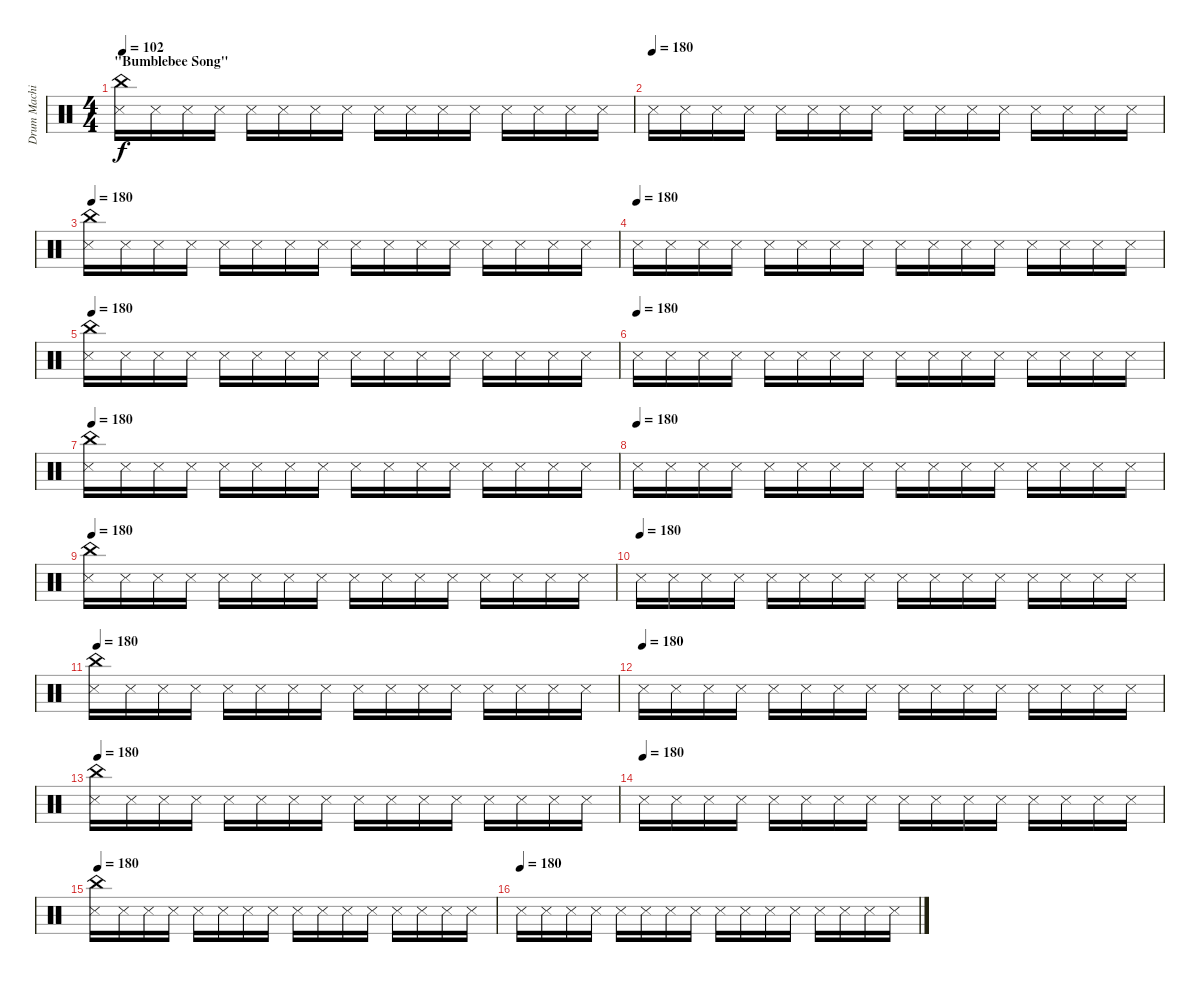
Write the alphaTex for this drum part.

\track ("Drum Machine" "Drum Machi") {instrument percussion}
\staff {score}
\articulation defaults
\ts (4 4)
\section ("" "\"Bumblebee Song\"")
\tempo 102
\tempo 180
\tempo 102
\clef neutral
\ks c
("China (hit)" "Snare (side stick) 3").16{dy f} "Snare (side stick) 3".16 "Snare (side stick) 3".16 "Snare (side stick) 3".16 "Snare (side stick) 3".16 "Snare (side stick) 3".16 "Snare (side stick) 3".16 "Snare (side stick) 3".16 "Snare (side stick) 3".16 "Snare (side stick) 3".16 "Snare (side stick) 3".16 "Snare (side stick) 3".16 "Snare (side stick) 3".16 "Snare (side stick) 3".16 "Snare (side stick) 3".16 "Snare (side stick) 3".16 |
\tempo (180)
"Snare (side stick) 3".16 "Snare (side stick) 3".16 "Snare (side stick) 3".16 "Snare (side stick) 3".16 "Snare (side stick) 3".16 "Snare (side stick) 3".16 "Snare (side stick) 3".16 "Snare (side stick) 3".16 "Snare (side stick) 3".16 "Snare (side stick) 3".16 "Snare (side stick) 3".16 "Snare (side stick) 3".16 "Snare (side stick) 3".16 "Snare (side stick) 3".16 "Snare (side stick) 3".16 "Snare (side stick) 3".16 |
\tempo 180
("China (hit)" "Snare (side stick) 3").16 "Snare (side stick) 3".16 "Snare (side stick) 3".16 "Snare (side stick) 3".16 "Snare (side stick) 3".16 "Snare (side stick) 3".16 "Snare (side stick) 3".16 "Snare (side stick) 3".16 "Snare (side stick) 3".16 "Snare (side stick) 3".16 "Snare (side stick) 3".16 "Snare (side stick) 3".16 "Snare (side stick) 3".16 "Snare (side stick) 3".16 "Snare (side stick) 3".16 "Snare (side stick) 3".16 |
\tempo (180)
"Snare (side stick) 3".16 "Snare (side stick) 3".16 "Snare (side stick) 3".16 "Snare (side stick) 3".16 "Snare (side stick) 3".16 "Snare (side stick) 3".16 "Snare (side stick) 3".16 "Snare (side stick) 3".16 "Snare (side stick) 3".16 "Snare (side stick) 3".16 "Snare (side stick) 3".16 "Snare (side stick) 3".16 "Snare (side stick) 3".16 "Snare (side stick) 3".16 "Snare (side stick) 3".16 "Snare (side stick) 3".16 |
\tempo 180
("China (hit)" "Snare (side stick) 3").16 "Snare (side stick) 3".16 "Snare (side stick) 3".16 "Snare (side stick) 3".16 "Snare (side stick) 3".16 "Snare (side stick) 3".16 "Snare (side stick) 3".16 "Snare (side stick) 3".16 "Snare (side stick) 3".16 "Snare (side stick) 3".16 "Snare (side stick) 3".16 "Snare (side stick) 3".16 "Snare (side stick) 3".16 "Snare (side stick) 3".16 "Snare (side stick) 3".16 "Snare (side stick) 3".16 |
\tempo (180)
"Snare (side stick) 3".16 "Snare (side stick) 3".16 "Snare (side stick) 3".16 "Snare (side stick) 3".16 "Snare (side stick) 3".16 "Snare (side stick) 3".16 "Snare (side stick) 3".16 "Snare (side stick) 3".16 "Snare (side stick) 3".16 "Snare (side stick) 3".16 "Snare (side stick) 3".16 "Snare (side stick) 3".16 "Snare (side stick) 3".16 "Snare (side stick) 3".16 "Snare (side stick) 3".16 "Snare (side stick) 3".16 |
\tempo 180
("China (hit)" "Snare (side stick) 3").16 "Snare (side stick) 3".16 "Snare (side stick) 3".16 "Snare (side stick) 3".16 "Snare (side stick) 3".16 "Snare (side stick) 3".16 "Snare (side stick) 3".16 "Snare (side stick) 3".16 "Snare (side stick) 3".16 "Snare (side stick) 3".16 "Snare (side stick) 3".16 "Snare (side stick) 3".16 "Snare (side stick) 3".16 "Snare (side stick) 3".16 "Snare (side stick) 3".16 "Snare (side stick) 3".16 |
\tempo (180)
"Snare (side stick) 3".16 "Snare (side stick) 3".16 "Snare (side stick) 3".16 "Snare (side stick) 3".16 "Snare (side stick) 3".16 "Snare (side stick) 3".16 "Snare (side stick) 3".16 "Snare (side stick) 3".16 "Snare (side stick) 3".16 "Snare (side stick) 3".16 "Snare (side stick) 3".16 "Snare (side stick) 3".16 "Snare (side stick) 3".16 "Snare (side stick) 3".16 "Snare (side stick) 3".16 "Snare (side stick) 3".16 |
\tempo 180
("China (hit)" "Snare (side stick) 3").16 "Snare (side stick) 3".16 "Snare (side stick) 3".16 "Snare (side stick) 3".16 "Snare (side stick) 3".16 "Snare (side stick) 3".16 "Snare (side stick) 3".16 "Snare (side stick) 3".16 "Snare (side stick) 3".16 "Snare (side stick) 3".16 "Snare (side stick) 3".16 "Snare (side stick) 3".16 "Snare (side stick) 3".16 "Snare (side stick) 3".16 "Snare (side stick) 3".16 "Snare (side stick) 3".16 |
\tempo (180)
"Snare (side stick) 3".16 "Snare (side stick) 3".16 "Snare (side stick) 3".16 "Snare (side stick) 3".16 "Snare (side stick) 3".16 "Snare (side stick) 3".16 "Snare (side stick) 3".16 "Snare (side stick) 3".16 "Snare (side stick) 3".16 "Snare (side stick) 3".16 "Snare (side stick) 3".16 "Snare (side stick) 3".16 "Snare (side stick) 3".16 "Snare (side stick) 3".16 "Snare (side stick) 3".16 "Snare (side stick) 3".16 |
\tempo 180
("China (hit)" "Snare (side stick) 3").16 "Snare (side stick) 3".16 "Snare (side stick) 3".16 "Snare (side stick) 3".16 "Snare (side stick) 3".16 "Snare (side stick) 3".16 "Snare (side stick) 3".16 "Snare (side stick) 3".16 "Snare (side stick) 3".16 "Snare (side stick) 3".16 "Snare (side stick) 3".16 "Snare (side stick) 3".16 "Snare (side stick) 3".16 "Snare (side stick) 3".16 "Snare (side stick) 3".16 "Snare (side stick) 3".16 |
\tempo (180)
"Snare (side stick) 3".16 "Snare (side stick) 3".16 "Snare (side stick) 3".16 "Snare (side stick) 3".16 "Snare (side stick) 3".16 "Snare (side stick) 3".16 "Snare (side stick) 3".16 "Snare (side stick) 3".16 "Snare (side stick) 3".16 "Snare (side stick) 3".16 "Snare (side stick) 3".16 "Snare (side stick) 3".16 "Snare (side stick) 3".16 "Snare (side stick) 3".16 "Snare (side stick) 3".16 "Snare (side stick) 3".16 |
\tempo 180
("China (hit)" "Snare (side stick) 3").16 "Snare (side stick) 3".16 "Snare (side stick) 3".16 "Snare (side stick) 3".16 "Snare (side stick) 3".16 "Snare (side stick) 3".16 "Snare (side stick) 3".16 "Snare (side stick) 3".16 "Snare (side stick) 3".16 "Snare (side stick) 3".16 "Snare (side stick) 3".16 "Snare (side stick) 3".16 "Snare (side stick) 3".16 "Snare (side stick) 3".16 "Snare (side stick) 3".16 "Snare (side stick) 3".16 |
\tempo (180)
"Snare (side stick) 3".16 "Snare (side stick) 3".16 "Snare (side stick) 3".16 "Snare (side stick) 3".16 "Snare (side stick) 3".16 "Snare (side stick) 3".16 "Snare (side stick) 3".16 "Snare (side stick) 3".16 "Snare (side stick) 3".16 "Snare (side stick) 3".16 "Snare (side stick) 3".16 "Snare (side stick) 3".16 "Snare (side stick) 3".16 "Snare (side stick) 3".16 "Snare (side stick) 3".16 "Snare (side stick) 3".16 |
\tempo 180
("China (hit)" "Snare (side stick) 3").16 "Snare (side stick) 3".16 "Snare (side stick) 3".16 "Snare (side stick) 3".16 "Snare (side stick) 3".16 "Snare (side stick) 3".16 "Snare (side stick) 3".16 "Snare (side stick) 3".16 "Snare (side stick) 3".16 "Snare (side stick) 3".16 "Snare (side stick) 3".16 "Snare (side stick) 3".16 "Snare (side stick) 3".16 "Snare (side stick) 3".16 "Snare (side stick) 3".16 "Snare (side stick) 3".16 |
\tempo (180)
"Snare (side stick) 3".16 "Snare (side stick) 3".16 "Snare (side stick) 3".16 "Snare (side stick) 3".16 "Snare (side stick) 3".16 "Snare (side stick) 3".16 "Snare (side stick) 3".16 "Snare (side stick) 3".16 "Snare (side stick) 3".16 "Snare (side stick) 3".16 "Snare (side stick) 3".16 "Snare (side stick) 3".16 "Snare (side stick) 3".16 "Snare (side stick) 3".16 "Snare (side stick) 3".16 "Snare (side stick) 3".16
